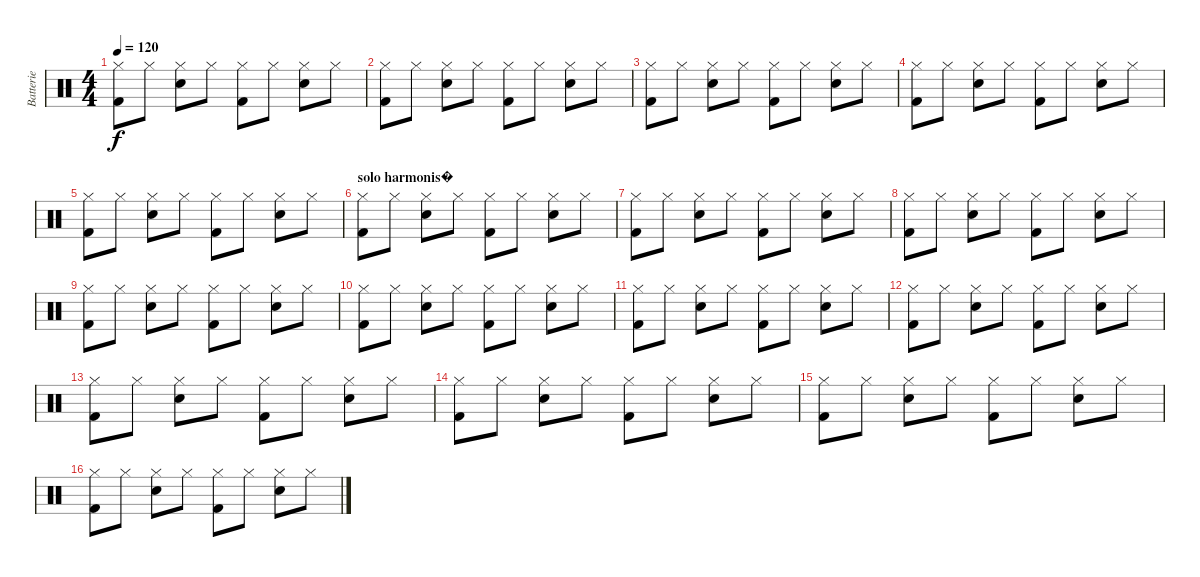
\track ("Batterie" "Batterie") {instrument percussion}
\staff {score}
\articulation defaults
\ts (4 4)
\tempo 120
\clef neutral
\ks c
("Hi-Hat (closed)" "Kick (hit) 2").8{dy f} "Hi-Hat (closed)".8 ("Hi-Hat (closed)" "Electric Snare (hit)").8 "Hi-Hat (closed)".8 ("Hi-Hat (closed)" "Kick (hit) 2").8 "Hi-Hat (closed)".8 ("Hi-Hat (closed)" "Electric Snare (hit)").8 "Hi-Hat (closed)".8 |
("Hi-Hat (closed)" "Kick (hit) 2").8 "Hi-Hat (closed)".8 ("Hi-Hat (closed)" "Electric Snare (hit)").8 "Hi-Hat (closed)".8 ("Hi-Hat (closed)" "Kick (hit) 2").8 "Hi-Hat (closed)".8 ("Hi-Hat (closed)" "Electric Snare (hit)").8 "Hi-Hat (closed)".8 |
("Hi-Hat (closed)" "Kick (hit) 2").8 "Hi-Hat (closed)".8 ("Hi-Hat (closed)" "Electric Snare (hit)").8 "Hi-Hat (closed)".8 ("Hi-Hat (closed)" "Kick (hit) 2").8 "Hi-Hat (closed)".8 ("Hi-Hat (closed)" "Electric Snare (hit)").8 "Hi-Hat (closed)".8 |
("Hi-Hat (closed)" "Kick (hit) 2").8 "Hi-Hat (closed)".8 ("Hi-Hat (closed)" "Electric Snare (hit)").8 "Hi-Hat (closed)".8 ("Hi-Hat (closed)" "Kick (hit) 2").8 "Hi-Hat (closed)".8 ("Hi-Hat (closed)" "Electric Snare (hit)").8 "Hi-Hat (closed)".8 |
("Hi-Hat (closed)" "Kick (hit) 2").8 "Hi-Hat (closed)".8 ("Hi-Hat (closed)" "Electric Snare (hit)").8 "Hi-Hat (closed)".8 ("Hi-Hat (closed)" "Kick (hit) 2").8 "Hi-Hat (closed)".8 ("Hi-Hat (closed)" "Electric Snare (hit)").8 "Hi-Hat (closed)".8 |
\section ("" "solo harmonis�")
("Hi-Hat (closed)" "Kick (hit) 2").8 "Hi-Hat (closed)".8 ("Hi-Hat (closed)" "Electric Snare (hit)").8 "Hi-Hat (closed)".8 ("Hi-Hat (closed)" "Kick (hit) 2").8 "Hi-Hat (closed)".8 ("Hi-Hat (closed)" "Electric Snare (hit)").8 "Hi-Hat (closed)".8 |
("Hi-Hat (closed)" "Kick (hit) 2").8 "Hi-Hat (closed)".8 ("Hi-Hat (closed)" "Electric Snare (hit)").8 "Hi-Hat (closed)".8 ("Hi-Hat (closed)" "Kick (hit) 2").8 "Hi-Hat (closed)".8 ("Hi-Hat (closed)" "Electric Snare (hit)").8 "Hi-Hat (closed)".8 |
("Hi-Hat (closed)" "Kick (hit) 2").8 "Hi-Hat (closed)".8 ("Hi-Hat (closed)" "Electric Snare (hit)").8 "Hi-Hat (closed)".8 ("Hi-Hat (closed)" "Kick (hit) 2").8 "Hi-Hat (closed)".8 ("Hi-Hat (closed)" "Electric Snare (hit)").8 "Hi-Hat (closed)".8 |
("Hi-Hat (closed)" "Kick (hit) 2").8 "Hi-Hat (closed)".8 ("Hi-Hat (closed)" "Electric Snare (hit)").8 "Hi-Hat (closed)".8 ("Hi-Hat (closed)" "Kick (hit) 2").8 "Hi-Hat (closed)".8 ("Hi-Hat (closed)" "Electric Snare (hit)").8 "Hi-Hat (closed)".8 |
("Hi-Hat (closed)" "Kick (hit) 2").8 "Hi-Hat (closed)".8 ("Hi-Hat (closed)" "Electric Snare (hit)").8 "Hi-Hat (closed)".8 ("Hi-Hat (closed)" "Kick (hit) 2").8 "Hi-Hat (closed)".8 ("Hi-Hat (closed)" "Electric Snare (hit)").8 "Hi-Hat (closed)".8 |
("Hi-Hat (closed)" "Kick (hit) 2").8 "Hi-Hat (closed)".8 ("Hi-Hat (closed)" "Electric Snare (hit)").8 "Hi-Hat (closed)".8 ("Hi-Hat (closed)" "Kick (hit) 2").8 "Hi-Hat (closed)".8 ("Hi-Hat (closed)" "Electric Snare (hit)").8 "Hi-Hat (closed)".8 |
("Hi-Hat (closed)" "Kick (hit) 2").8 "Hi-Hat (closed)".8 ("Hi-Hat (closed)" "Electric Snare (hit)").8 "Hi-Hat (closed)".8 ("Hi-Hat (closed)" "Kick (hit) 2").8 "Hi-Hat (closed)".8 ("Hi-Hat (closed)" "Electric Snare (hit)").8 "Hi-Hat (closed)".8 |
("Hi-Hat (closed)" "Kick (hit) 2").8 "Hi-Hat (closed)".8 ("Hi-Hat (closed)" "Electric Snare (hit)").8 "Hi-Hat (closed)".8 ("Hi-Hat (closed)" "Kick (hit) 2").8 "Hi-Hat (closed)".8 ("Hi-Hat (closed)" "Electric Snare (hit)").8 "Hi-Hat (closed)".8 |
("Hi-Hat (closed)" "Kick (hit) 2").8 "Hi-Hat (closed)".8 ("Hi-Hat (closed)" "Electric Snare (hit)").8 "Hi-Hat (closed)".8 ("Hi-Hat (closed)" "Kick (hit) 2").8 "Hi-Hat (closed)".8 ("Hi-Hat (closed)" "Electric Snare (hit)").8 "Hi-Hat (closed)".8 |
("Hi-Hat (closed)" "Kick (hit) 2").8 "Hi-Hat (closed)".8 ("Hi-Hat (closed)" "Electric Snare (hit)").8 "Hi-Hat (closed)".8 ("Hi-Hat (closed)" "Kick (hit) 2").8 "Hi-Hat (closed)".8 ("Hi-Hat (closed)" "Electric Snare (hit)").8 "Hi-Hat (closed)".8 |
("Hi-Hat (closed)" "Kick (hit) 2").8 "Hi-Hat (closed)".8 ("Hi-Hat (closed)" "Electric Snare (hit)").8 "Hi-Hat (closed)".8 ("Hi-Hat (closed)" "Kick (hit) 2").8 "Hi-Hat (closed)".8 ("Hi-Hat (closed)" "Electric Snare (hit)").8 "Hi-Hat (closed)".8
